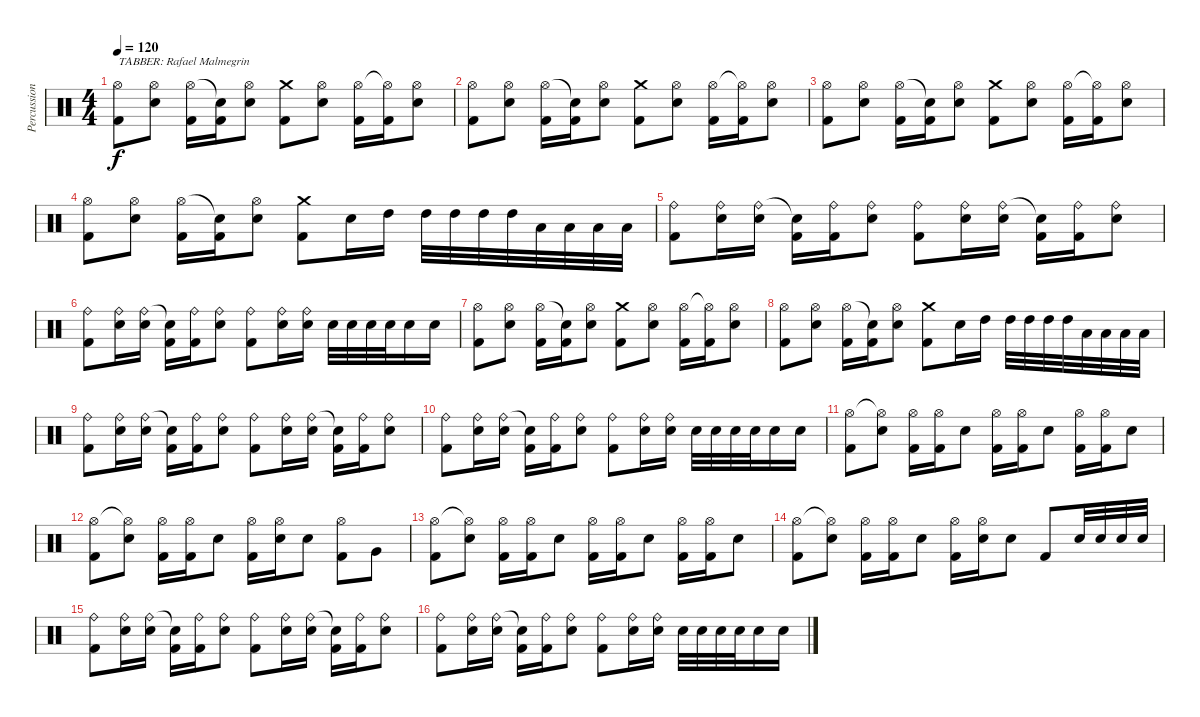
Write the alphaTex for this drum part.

\track ("Percussion" "Percussion") {instrument percussion}
\staff {score}
\articulation defaults
\ts (4 4)
\tempo 120
\clef neutral
\ks c
("Hi-Hat (open)" "Kick (hit) 2").8{txt "TABBER: Rafael Malmegrin" dy f} ("Hi-Hat (open)" "Snare (hit) 2").8 ("Hi-Hat (open)" "Kick (hit) 2").16 ("Snare (hit)"{t} "Kick (hit) 2").16 ("Hi-Hat (open)" "Snare (hit) 2").8 ("Crash medium (hit)" "Kick (hit) 2").8 ("Hi-Hat (open)" "Snare (hit) 2").8 ("Hi-Hat (open)" "Kick (hit) 2").16 ("Hi-Hat (open)"{t} "Kick (hit) 2").16 ("Hi-Hat (open)" "Snare (hit) 2").8 |
("Hi-Hat (open)" "Kick (hit) 2").8 ("Hi-Hat (open)" "Snare (hit) 2").8 ("Hi-Hat (open)" "Kick (hit) 2").16 ("Snare (hit)"{t} "Kick (hit) 2").16 ("Hi-Hat (open)" "Snare (hit) 2").8 ("Crash medium (hit)" "Kick (hit) 2").8 ("Hi-Hat (open)" "Snare (hit) 2").8 ("Hi-Hat (open)" "Kick (hit) 2").16 ("Hi-Hat (open)"{t} "Kick (hit) 2").16 ("Hi-Hat (open)" "Snare (hit) 2").8 |
("Hi-Hat (open)" "Kick (hit) 2").8 ("Hi-Hat (open)" "Snare (hit) 2").8 ("Hi-Hat (open)" "Kick (hit) 2").16 ("Snare (hit)"{t} "Kick (hit) 2").16 ("Hi-Hat (open)" "Snare (hit) 2").8 ("Crash medium (hit)" "Kick (hit) 2").8 ("Hi-Hat (open)" "Snare (hit) 2").8 ("Hi-Hat (open)" "Kick (hit) 2").16 ("Hi-Hat (open)"{t} "Kick (hit) 2").16 ("Hi-Hat (open)" "Snare (hit) 2").8 |
("Hi-Hat (open)" "Kick (hit) 2").8 ("Hi-Hat (open)" "Snare (hit) 2").8 ("Hi-Hat (open)" "Kick (hit) 2").16 ("Snare (hit)"{t} "Kick (hit) 2").16 ("Hi-Hat (open)" "Snare (hit) 2").8 ("Crash medium (hit)" "Kick (hit) 2").8 "Snare (hit) 2".16 "High Tom (hit)".16 "High Tom (hit)".32 "High Tom (hit)".32 "High Tom (hit)".32 "High Tom (hit)".32 "Low Tom (hit)".32 "Low Tom (hit)".32 "Low Tom (hit)".32 "Low Tom (hit)".32 |
("Ride (bell)" "Kick (hit) 2").8 ("Ride (bell)" "Snare (hit) 2").16 ("Ride (bell)" "Snare (hit) 2").16 ("Snare (hit)"{t} "Kick (hit) 2").16 ("Ride (bell)" "Kick (hit) 2").16 ("Ride (bell)" "Snare (hit) 2").8 ("Ride (bell)" "Kick (hit) 2").8 ("Ride (bell)" "Snare (hit) 2").16 ("Ride (bell)" "Snare (hit) 2").16 ("Snare (hit)"{t} "Kick (hit) 2").16 ("Ride (bell)" "Kick (hit) 2").16 ("Ride (bell)" "Snare (hit) 2").8 |
("Ride (bell)" "Kick (hit) 2").8 ("Ride (bell)" "Snare (hit) 2").16 ("Ride (bell)" "Snare (hit) 2").16 ("Snare (hit)"{t} "Kick (hit) 2").16 ("Ride (bell)" "Kick (hit) 2").16 ("Ride (bell)" "Snare (hit) 2").8 ("Ride (bell)" "Kick (hit) 2").8 ("Ride (bell)" "Snare (hit) 2").16 ("Ride (bell)" "Snare (hit) 2").16 "Snare (hit) 2".32 "Snare (hit) 2".32 "Snare (hit) 2".32 "Snare (hit) 2".32 "Snare (hit) 2".16 "Snare (hit) 2".16 |
("Hi-Hat (open)" "Kick (hit) 2").8 ("Hi-Hat (open)" "Snare (hit) 2").8 ("Hi-Hat (open)" "Kick (hit) 2").16 ("Snare (hit)"{t} "Kick (hit) 2").16 ("Hi-Hat (open)" "Snare (hit) 2").8 ("Crash medium (hit)" "Kick (hit) 2").8 ("Hi-Hat (open)" "Snare (hit) 2").8 ("Hi-Hat (open)" "Kick (hit) 2").16 ("Hi-Hat (open)"{t} "Kick (hit) 2").16 ("Hi-Hat (open)" "Snare (hit) 2").8 |
("Hi-Hat (open)" "Kick (hit) 2").8 ("Hi-Hat (open)" "Snare (hit) 2").8 ("Hi-Hat (open)" "Kick (hit) 2").16 ("Snare (hit)"{t} "Kick (hit) 2").16 ("Hi-Hat (open)" "Snare (hit) 2").8 ("Crash medium (hit)" "Kick (hit) 2").8 "Snare (hit) 2".16 "High Tom (hit)".16 "High Tom (hit)".32 "High Tom (hit)".32 "High Tom (hit)".32 "High Tom (hit)".32 "Low Tom (hit)".32 "Low Tom (hit)".32 "Low Tom (hit)".32 "Low Tom (hit)".32 |
("Ride (bell)" "Kick (hit) 2").8 ("Ride (bell)" "Snare (hit) 2").16 ("Ride (bell)" "Snare (hit) 2").16 ("Snare (hit)"{t} "Kick (hit) 2").16 ("Ride (bell)" "Kick (hit) 2").16 ("Ride (bell)" "Snare (hit) 2").8 ("Ride (bell)" "Kick (hit) 2").8 ("Ride (bell)" "Snare (hit) 2").16 ("Ride (bell)" "Snare (hit) 2").16 ("Snare (hit)"{t} "Kick (hit) 2").16 ("Ride (bell)" "Kick (hit) 2").16 ("Ride (bell)" "Snare (hit) 2").8 |
("Ride (bell)" "Kick (hit) 2").8 ("Ride (bell)" "Snare (hit) 2").16 ("Ride (bell)" "Snare (hit) 2").16 ("Snare (hit)"{t} "Kick (hit) 2").16 ("Ride (bell)" "Kick (hit) 2").16 ("Ride (bell)" "Snare (hit) 2").8 ("Ride (bell)" "Kick (hit) 2").8 ("Ride (bell)" "Snare (hit) 2").16 ("Ride (bell)" "Snare (hit) 2").16 "Snare (hit) 2".32 "Snare (hit) 2".32 "Snare (hit) 2".32 "Snare (hit) 2".32 "Snare (hit) 2".16 "Snare (hit) 2".16 |
("Hi-Hat (open)" "Kick (hit) 2").8 ("Hi-Hat (open)"{t} "Snare (hit) 2").8 ("Hi-Hat (open)" "Kick (hit) 2").16 ("Hi-Hat (open)" "Kick (hit) 2").16 "Snare (hit) 2".8 ("Hi-Hat (open)" "Kick (hit) 2").16 ("Hi-Hat (open)" "Kick (hit) 2").16 "Snare (hit) 2".8 ("Hi-Hat (open)" "Kick (hit) 2").16 ("Hi-Hat (open)" "Kick (hit) 2").16 "Snare (hit) 2".8 |
("Hi-Hat (open)" "Kick (hit) 2").8 ("Hi-Hat (open)"{t} "Snare (hit) 2").8 ("Hi-Hat (open)" "Kick (hit) 2").16 ("Hi-Hat (open)" "Kick (hit) 2").16 "Snare (hit) 2".8 ("Hi-Hat (open)" "Kick (hit) 2").16 ("Hi-Hat (open)" "Snare (hit) 2").16 "Snare (hit) 2".8 ("Hi-Hat (open)" "Kick (hit) 2").8 "Very Low Tom (hit)".8 |
("Hi-Hat (open)" "Kick (hit) 2").8 ("Hi-Hat (open)"{t} "Snare (hit) 2").8 ("Hi-Hat (open)" "Kick (hit) 2").16 ("Hi-Hat (open)" "Kick (hit) 2").16 "Snare (hit) 2".8 ("Hi-Hat (open)" "Kick (hit) 2").16 ("Hi-Hat (open)" "Kick (hit) 2").16 "Snare (hit) 2".8 ("Hi-Hat (open)" "Kick (hit) 2").16 ("Hi-Hat (open)" "Kick (hit) 2").16 "Snare (hit) 2".8 |
("Hi-Hat (open)" "Kick (hit) 2").8 ("Hi-Hat (open)"{t} "Snare (hit) 2").8 ("Hi-Hat (open)" "Kick (hit) 2").16 ("Hi-Hat (open)" "Kick (hit) 2").16 "Snare (hit) 2".8 ("Hi-Hat (open)" "Kick (hit) 2").16 ("Hi-Hat (open)" "Snare (hit) 2").16 "Snare (hit) 2".8 "Kick (hit) 2".8 "Snare (hit) 2".32 "Snare (hit) 2".32 "Snare (hit) 2".32 "Snare (hit) 2".32 |
("Ride (bell)" "Kick (hit) 2").8 ("Ride (bell)" "Snare (hit) 2").16 ("Ride (bell)" "Snare (hit) 2").16 ("Snare (hit)"{t} "Kick (hit) 2").16 ("Ride (bell)" "Kick (hit) 2").16 ("Ride (bell)" "Snare (hit) 2").8 ("Ride (bell)" "Kick (hit) 2").8 ("Ride (bell)" "Snare (hit) 2").16 ("Ride (bell)" "Snare (hit) 2").16 ("Snare (hit)"{t} "Kick (hit) 2").16 ("Ride (bell)" "Kick (hit) 2").16 ("Ride (bell)" "Snare (hit) 2").8 |
("Ride (bell)" "Kick (hit) 2").8 ("Ride (bell)" "Snare (hit) 2").16 ("Ride (bell)" "Snare (hit) 2").16 ("Snare (hit)"{t} "Kick (hit) 2").16 ("Ride (bell)" "Kick (hit) 2").16 ("Ride (bell)" "Snare (hit) 2").8 ("Ride (bell)" "Kick (hit) 2").8 ("Ride (bell)" "Snare (hit) 2").16 ("Ride (bell)" "Snare (hit) 2").16 "Snare (hit) 2".32 "Snare (hit) 2".32 "Snare (hit) 2".32 "Snare (hit) 2".32 "Snare (hit) 2".16 "Snare (hit) 2".16
